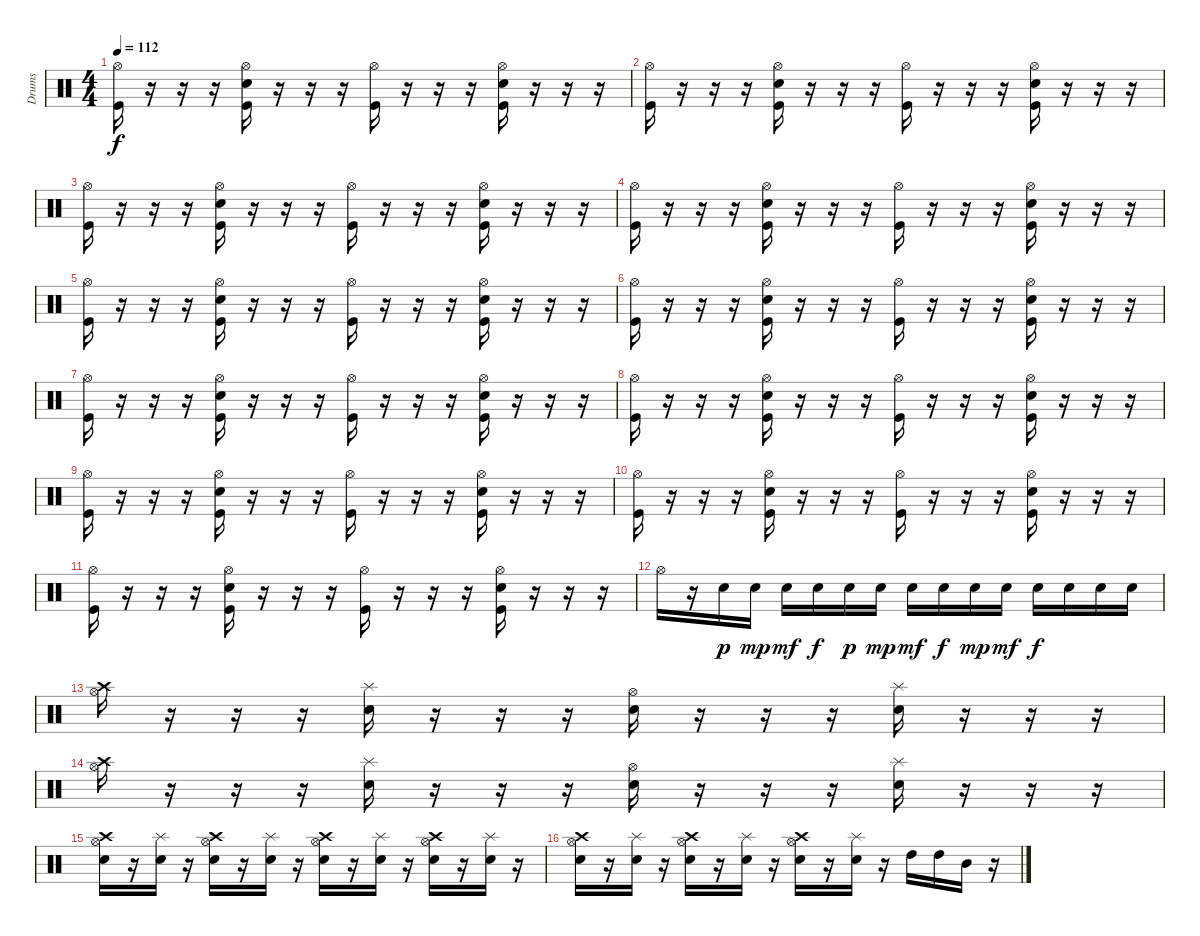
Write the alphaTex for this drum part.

\track ("Drums" "Drums") {instrument percussion}
\staff {score}
\articulation defaults
\ts (4 4)
\tempo 112
\clef neutral
\ks c
("Hi-Hat (open)" "Kick (hit)").16{dy f} r.16 r.16 r.16 ("Hi-Hat (open)" "Electric Snare (hit)" "Kick (hit)").16 r.16 r.16 r.16 ("Hi-Hat (open)" "Kick (hit)").16 r.16 r.16 r.16 ("Hi-Hat (open)" "Electric Snare (hit)" "Kick (hit)").16 r.16 r.16 r.16 |
("Hi-Hat (open)" "Kick (hit)").16 r.16 r.16 r.16 ("Hi-Hat (open)" "Electric Snare (hit)" "Kick (hit)").16 r.16 r.16 r.16 ("Hi-Hat (open)" "Kick (hit)").16 r.16 r.16 r.16 ("Hi-Hat (open)" "Electric Snare (hit)" "Kick (hit)").16 r.16 r.16 r.16 |
("Hi-Hat (open)" "Kick (hit)").16 r.16 r.16 r.16 ("Hi-Hat (open)" "Electric Snare (hit)" "Kick (hit)").16 r.16 r.16 r.16 ("Hi-Hat (open)" "Kick (hit)").16 r.16 r.16 r.16 ("Hi-Hat (open)" "Electric Snare (hit)" "Kick (hit)").16 r.16 r.16 r.16 |
("Hi-Hat (open)" "Kick (hit)").16 r.16 r.16 r.16 ("Hi-Hat (open)" "Electric Snare (hit)" "Kick (hit)").16 r.16 r.16 r.16 ("Hi-Hat (open)" "Kick (hit)").16 r.16 r.16 r.16 ("Hi-Hat (open)" "Electric Snare (hit)" "Kick (hit)").16 r.16 r.16 r.16 |
("Hi-Hat (open)" "Kick (hit)").16 r.16 r.16 r.16 ("Hi-Hat (open)" "Electric Snare (hit)" "Kick (hit)").16 r.16 r.16 r.16 ("Hi-Hat (open)" "Kick (hit)").16 r.16 r.16 r.16 ("Hi-Hat (open)" "Electric Snare (hit)" "Kick (hit)").16 r.16 r.16 r.16 |
("Hi-Hat (open)" "Kick (hit)").16 r.16 r.16 r.16 ("Hi-Hat (open)" "Electric Snare (hit)" "Kick (hit)").16 r.16 r.16 r.16 ("Hi-Hat (open)" "Kick (hit)").16 r.16 r.16 r.16 ("Hi-Hat (open)" "Electric Snare (hit)" "Kick (hit)").16 r.16 r.16 r.16 |
("Hi-Hat (open)" "Kick (hit)").16 r.16 r.16 r.16 ("Hi-Hat (open)" "Electric Snare (hit)" "Kick (hit)").16 r.16 r.16 r.16 ("Hi-Hat (open)" "Kick (hit)").16 r.16 r.16 r.16 ("Hi-Hat (open)" "Electric Snare (hit)" "Kick (hit)").16 r.16 r.16 r.16 |
("Hi-Hat (open)" "Kick (hit)").16 r.16 r.16 r.16 ("Hi-Hat (open)" "Electric Snare (hit)" "Kick (hit)").16 r.16 r.16 r.16 ("Hi-Hat (open)" "Kick (hit)").16 r.16 r.16 r.16 ("Hi-Hat (open)" "Electric Snare (hit)" "Kick (hit)").16 r.16 r.16 r.16 |
("Hi-Hat (open)" "Kick (hit)").16 r.16 r.16 r.16 ("Hi-Hat (open)" "Electric Snare (hit)" "Kick (hit)").16 r.16 r.16 r.16 ("Hi-Hat (open)" "Kick (hit)").16 r.16 r.16 r.16 ("Hi-Hat (open)" "Electric Snare (hit)" "Kick (hit)").16 r.16 r.16 r.16 |
("Hi-Hat (open)" "Kick (hit)").16 r.16 r.16 r.16 ("Hi-Hat (open)" "Electric Snare (hit)" "Kick (hit)").16 r.16 r.16 r.16 ("Hi-Hat (open)" "Kick (hit)").16 r.16 r.16 r.16 ("Hi-Hat (open)" "Electric Snare (hit)" "Kick (hit)").16 r.16 r.16 r.16 |
("Hi-Hat (open)" "Kick (hit)").16 r.16 r.16 r.16 ("Hi-Hat (open)" "Electric Snare (hit)" "Kick (hit)").16 r.16 r.16 r.16 ("Hi-Hat (open)" "Kick (hit)").16 r.16 r.16 r.16 ("Hi-Hat (open)" "Electric Snare (hit)" "Kick (hit)").16 r.16 r.16 r.16 |
"Hi-Hat (open)".16 r.16 "Electric Snare (hit)".16{dy p} "Electric Snare (hit)".16{dy mp} "Electric Snare (hit)".16{dy mf} "Electric Snare (hit)".16{dy f} "Electric Snare (hit)".16{dy p} "Electric Snare (hit)".16{dy mp} "Electric Snare (hit)".16{dy mf} "Electric Snare (hit)".16{dy f} "Electric Snare (hit)".16{dy mp} "Electric Snare (hit)".16{dy mf} "Electric Snare (hit)".16{dy f} "Electric Snare (hit)".16 "Electric Snare (hit)".16 "Electric Snare (hit)".16 |
("Hi-Hat (open)" "Crash high (hit)").16 r.16 r.16 r.16 ("Electric Snare (hit)" "Splash (hit)").16 r.16 r.16 r.16 ("Hi-Hat (open)" "Electric Snare (hit)").16 r.16 r.16 r.16 ("Electric Snare (hit)" "Splash (hit)").16 r.16 r.16 r.16 |
("Hi-Hat (open)" "Crash high (hit)").16 r.16 r.16 r.16 ("Electric Snare (hit)" "Splash (hit)").16 r.16 r.16 r.16 ("Hi-Hat (open)" "Electric Snare (hit)").16 r.16 r.16 r.16 ("Electric Snare (hit)" "Splash (hit)").16 r.16 r.16 r.16 |
("Hi-Hat (open)" "Electric Snare (hit)" "Crash high (hit)").16 r.16 ("Electric Snare (hit)" "Splash (hit)").16 r.16 ("Hi-Hat (open)" "Electric Snare (hit)" "Crash high (hit)").16 r.16 ("Electric Snare (hit)" "Splash (hit)").16 r.16 ("Hi-Hat (open)" "Electric Snare (hit)" "Crash high (hit)").16 r.16 ("Electric Snare (hit)" "Splash (hit)").16 r.16 ("Hi-Hat (open)" "Electric Snare (hit)" "Crash high (hit)").16 r.16 ("Electric Snare (hit)" "Splash (hit)").16 r.16 |
("Hi-Hat (open)" "Electric Snare (hit)" "Crash high (hit)").16 r.16 ("Electric Snare (hit)" "Splash (hit)").16 r.16 ("Hi-Hat (open)" "Electric Snare (hit)" "Crash high (hit)").16 r.16 ("Electric Snare (hit)" "Splash (hit)").16 r.16 ("Hi-Hat (open)" "Electric Snare (hit)" "Crash high (hit)").16 r.16 ("Electric Snare (hit)" "Splash (hit)").16 r.16 "High Tom (hit)".16 "High Tom (hit)".16 "Mid Tom (hit)".16 r.16
